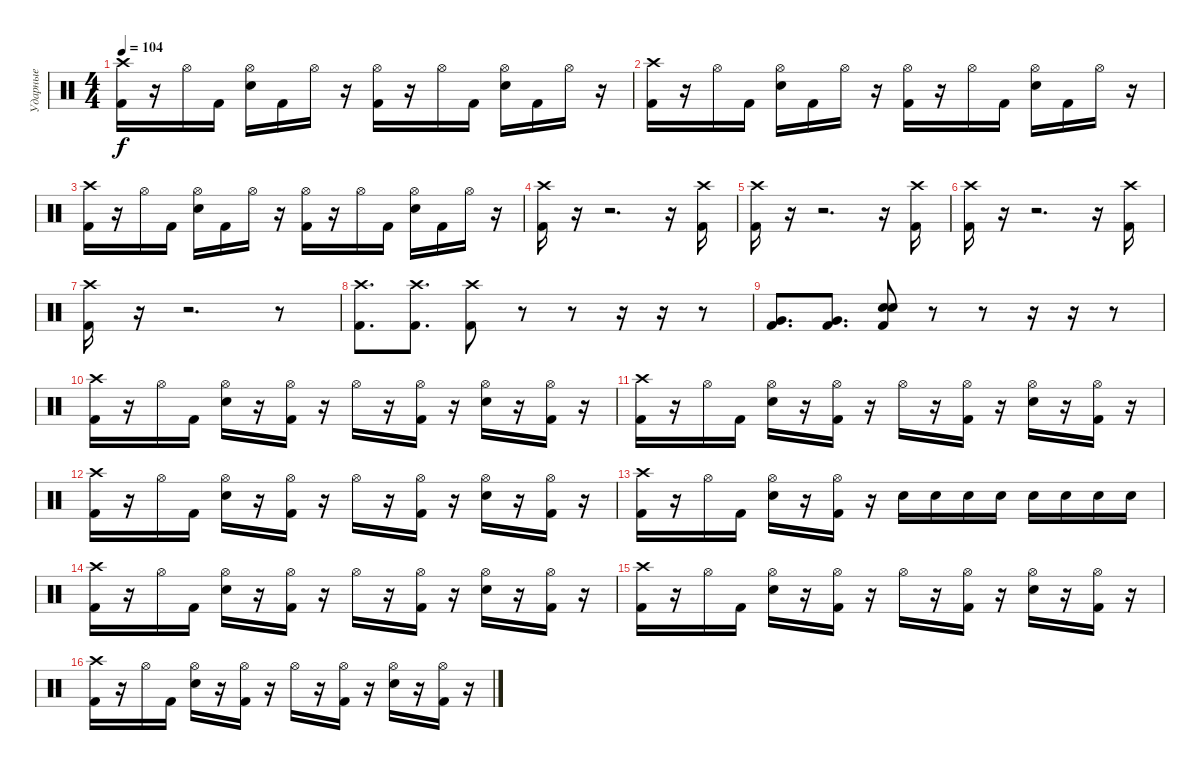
\track ("Ударные" "Ударные") {instrument percussion}
\staff {score}
\articulation defaults
\ts (4 4)
\tempo 104
\clef neutral
\ks c
("Crash high (hit)" "Kick (hit) 2").16{dy f} r.16 "Hi-Hat (open)".16 "Kick (hit) 2".16 ("Hi-Hat (open)" "Snare (hit) 2").16 "Kick (hit) 2".16 "Hi-Hat (open)".16 r.16 ("Hi-Hat (open)" "Kick (hit) 2").16 r.16 "Hi-Hat (open)".16 "Kick (hit) 2".16 ("Hi-Hat (open)" "Snare (hit) 2").16 "Kick (hit) 2".16 "Hi-Hat (open)".16 r.16 |
("Crash high (hit)" "Kick (hit) 2").16 r.16 "Hi-Hat (open)".16 "Kick (hit) 2".16 ("Hi-Hat (open)" "Snare (hit) 2").16 "Kick (hit) 2".16 "Hi-Hat (open)".16 r.16 ("Hi-Hat (open)" "Kick (hit) 2").16 r.16 "Hi-Hat (open)".16 "Kick (hit) 2".16 ("Hi-Hat (open)" "Snare (hit) 2").16 "Kick (hit) 2".16 "Hi-Hat (open)".16 r.16 |
("Crash high (hit)" "Kick (hit) 2").16 r.16 "Hi-Hat (open)".16 "Kick (hit) 2".16 ("Hi-Hat (open)" "Snare (hit) 2").16 "Kick (hit) 2".16 "Hi-Hat (open)".16 r.16 ("Hi-Hat (open)" "Kick (hit) 2").16 r.16 "Hi-Hat (open)".16 "Kick (hit) 2".16 ("Hi-Hat (open)" "Snare (hit) 2").16 "Kick (hit) 2".16 "Hi-Hat (open)".16 r.16 |
("Crash high (hit)" "Kick (hit) 2").16 r.16 r.2{d} r.16 ("Crash high (hit)" "Kick (hit) 2").16 |
("Crash high (hit)" "Kick (hit) 2").16 r.16 r.2{d} r.16 ("Crash high (hit)" "Kick (hit) 2").16 |
("Crash high (hit)" "Kick (hit) 2").16 r.16 r.2{d} r.16 ("Crash high (hit)" "Kick (hit) 2").16 |
("Crash high (hit)" "Kick (hit) 2").16 r.16 r.2{d} r.8 |
("Crash high (hit)" "Kick (hit) 2").8{d} ("Crash high (hit)" "Kick (hit) 2").8{d} ("Crash high (hit)" "Kick (hit) 2").8 r.8 r.8 r.16 r.16 r.8 |
("Very Low Tom (hit)" "Kick (hit) 2").8{d} ("Very Low Tom (hit)" "Kick (hit) 2").8{d} ("Snare (hit) 2" "Snare (hit) 2" "Kick (hit) 2").8 r.8 r.8 r.16 r.16 r.8 |
("Crash high (hit)" "Kick (hit) 2").16 r.16 "Hi-Hat (open)".16 "Kick (hit) 2".16 ("Hi-Hat (open)" "Snare (hit) 2").16 r.16 ("Hi-Hat (open)" "Kick (hit) 2").16 r.16 "Hi-Hat (open)".16 r.16 ("Hi-Hat (open)" "Kick (hit) 2").16 r.16 ("Hi-Hat (open)" "Snare (hit) 2").16 r.16 ("Hi-Hat (open)" "Kick (hit) 2").16 r.16 |
("Crash high (hit)" "Kick (hit) 2").16 r.16 "Hi-Hat (open)".16 "Kick (hit) 2".16 ("Hi-Hat (open)" "Snare (hit) 2").16 r.16 ("Hi-Hat (open)" "Kick (hit) 2").16 r.16 "Hi-Hat (open)".16 r.16 ("Hi-Hat (open)" "Kick (hit) 2").16 r.16 ("Hi-Hat (open)" "Snare (hit) 2").16 r.16 ("Hi-Hat (open)" "Kick (hit) 2").16 r.16 |
("Crash high (hit)" "Kick (hit) 2").16 r.16 "Hi-Hat (open)".16 "Kick (hit) 2".16 ("Hi-Hat (open)" "Snare (hit) 2").16 r.16 ("Hi-Hat (open)" "Kick (hit) 2").16 r.16 "Hi-Hat (open)".16 r.16 ("Hi-Hat (open)" "Kick (hit) 2").16 r.16 ("Hi-Hat (open)" "Snare (hit) 2").16 r.16 ("Hi-Hat (open)" "Kick (hit) 2").16 r.16 |
("Crash high (hit)" "Kick (hit) 2").16 r.16 "Hi-Hat (open)".16 "Kick (hit) 2".16 ("Hi-Hat (open)" "Snare (hit) 2").16 r.16 ("Hi-Hat (open)" "Kick (hit) 2").16 r.16 "Snare (hit) 2".16 "Snare (hit) 2".16 "Snare (hit) 2".16 "Snare (hit) 2".16 "Snare (hit) 2".16 "Snare (hit) 2".16 "Snare (hit) 2".16 "Snare (hit) 2".16 |
("Crash high (hit)" "Kick (hit) 2").16 r.16 "Hi-Hat (open)".16 "Kick (hit) 2".16 ("Hi-Hat (open)" "Snare (hit) 2").16 r.16 ("Hi-Hat (open)" "Kick (hit) 2").16 r.16 "Hi-Hat (open)".16 r.16 ("Hi-Hat (open)" "Kick (hit) 2").16 r.16 ("Hi-Hat (open)" "Snare (hit) 2").16 r.16 ("Hi-Hat (open)" "Kick (hit) 2").16 r.16 |
("Crash high (hit)" "Kick (hit) 2").16 r.16 "Hi-Hat (open)".16 "Kick (hit) 2".16 ("Hi-Hat (open)" "Snare (hit) 2").16 r.16 ("Hi-Hat (open)" "Kick (hit) 2").16 r.16 "Hi-Hat (open)".16 r.16 ("Hi-Hat (open)" "Kick (hit) 2").16 r.16 ("Hi-Hat (open)" "Snare (hit) 2").16 r.16 ("Hi-Hat (open)" "Kick (hit) 2").16 r.16 |
("Crash high (hit)" "Kick (hit) 2").16 r.16 "Hi-Hat (open)".16 "Kick (hit) 2".16 ("Hi-Hat (open)" "Snare (hit) 2").16 r.16 ("Hi-Hat (open)" "Kick (hit) 2").16 r.16 "Hi-Hat (open)".16 r.16 ("Hi-Hat (open)" "Kick (hit) 2").16 r.16 ("Hi-Hat (open)" "Snare (hit) 2").16 r.16 ("Hi-Hat (open)" "Kick (hit) 2").16 r.16
